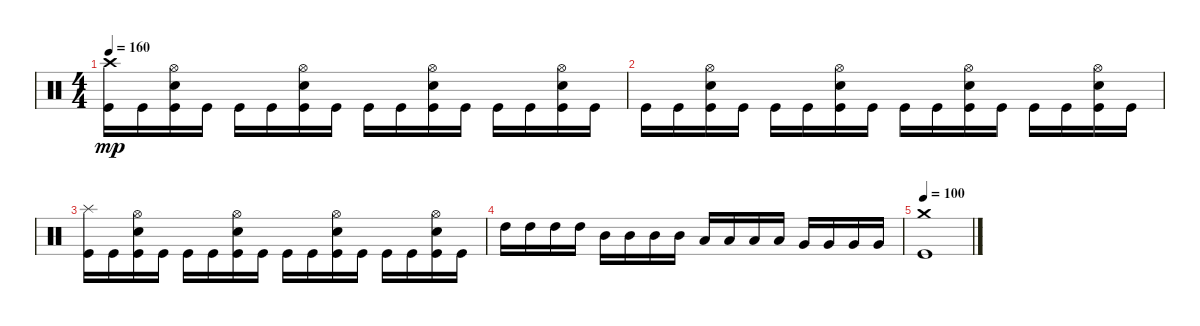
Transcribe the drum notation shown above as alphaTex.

\track "" {instrument percussion}
\staff {score}
\articulation defaults
\ts (4 4)
\tempo 160
\clef neutral
\ks c
("Kick (hit)" "Crash high (hit)").16{dy mp} "Kick (hit)".16 ("Kick (hit)" "Snare (hit) 2" "Hi-Hat (open)").16 "Kick (hit)".16 "Kick (hit)".16 "Kick (hit)".16 ("Kick (hit)" "Snare (hit) 2" "Hi-Hat (open)").16 "Kick (hit)".16 "Kick (hit)".16 "Kick (hit)".16 ("Kick (hit)" "Snare (hit) 2" "Hi-Hat (open)").16 "Kick (hit)".16 "Kick (hit)".16 "Kick (hit)".16 ("Kick (hit)" "Snare (hit) 2" "Hi-Hat (open)").16 "Kick (hit)".16 |
"Kick (hit)".16 "Kick (hit)".16 ("Kick (hit)" "Snare (hit) 2" "Hi-Hat (open)").16 "Kick (hit)".16 "Kick (hit)".16 "Kick (hit)".16 ("Kick (hit)" "Snare (hit) 2" "Hi-Hat (open)").16 "Kick (hit)".16 "Kick (hit)".16 "Kick (hit)".16 ("Kick (hit)" "Snare (hit) 2" "Hi-Hat (open)").16 "Kick (hit)".16 "Kick (hit)".16 "Kick (hit)".16 ("Kick (hit)" "Snare (hit) 2" "Hi-Hat (open)").16 "Kick (hit)".16 |
("Kick (hit)" "Splash (hit)").16 "Kick (hit)".16 ("Kick (hit)" "Snare (hit) 2" "Hi-Hat (open)").16 "Kick (hit)".16 "Kick (hit)".16 "Kick (hit)".16 ("Kick (hit)" "Snare (hit) 2" "Hi-Hat (open)").16 "Kick (hit)".16 "Kick (hit)".16 "Kick (hit)".16 ("Kick (hit)" "Snare (hit) 2" "Hi-Hat (open)").16 "Kick (hit)".16 "Kick (hit)".16 "Kick (hit)".16 ("Kick (hit)" "Snare (hit) 2" "Hi-Hat (open)").16 "Kick (hit)".16 |
"High Tom (hit)".16 "High Tom (hit)".16 "High Tom (hit)".16 "High Tom (hit)".16 "Mid Tom (hit)".16 "Mid Tom (hit)".16 "Mid Tom (hit)".16 "Mid Tom (hit)".16 "Low Tom (hit)".16 "Low Tom (hit)".16 "Low Tom (hit)".16 "Low Tom (hit)".16 "Very Low Tom (hit)".16 "Very Low Tom (hit)".16 "Very Low Tom (hit)".16 "Very Low Tom (hit)".16 |
\tempo 100
("Crash medium (hit)" "Kick (hit)").1
